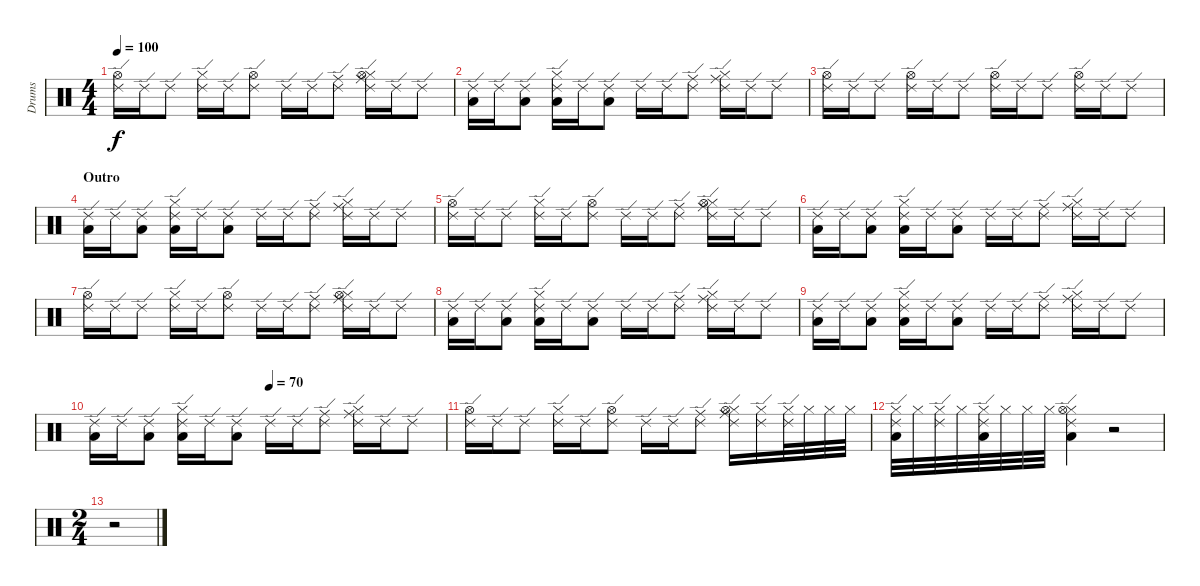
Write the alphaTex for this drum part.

\track ("Drums" "Drums") {instrument percussion}
\staff {score}
\articulation defaults
\ts (4 4)
\tempo 100
\clef neutral
\ks c
("Ride (edge) 2" "Hi-Hat (open)").16{dy f} "Ride (edge) 2".16 "Ride (edge) 2".8 ("Ride (edge) 2" "Hi-Hat (closed)").16 "Ride (edge) 2".16 ("Ride (edge) 2" "Hi-Hat (open)").8 "Ride (edge) 2".16 "Ride (edge) 2".16 ("Ride (edge) 2" "Ride (middle)").8 ("Ride (edge) 2" "Hi-Hat (closed)" "Ride (middle)" "Hi-Hat (open)").16 "Ride (edge) 2".16 "Ride (edge) 2".8 |
("Ride (edge) 2" "Low Tom (hit)").16 "Ride (edge) 2".16 ("Ride (edge) 2" "Low Tom (hit)").8 ("Ride (edge) 2" "Hi-Hat (closed)" "Low Tom (hit)").16 "Ride (edge) 2".16 ("Ride (edge) 2" "Low Tom (hit)").8 "Ride (edge) 2".16 "Ride (edge) 2".16 ("Ride (edge) 2" "Ride (middle)").8 ("Ride (edge) 2" "Hi-Hat (closed)" "Ride (middle)").16 "Ride (edge) 2".16 "Ride (edge) 2".8 |
("Ride (edge) 2" "Hi-Hat (open)").16 "Ride (edge) 2".16 "Ride (edge) 2".8 ("Ride (edge) 2" "Hi-Hat (open)").16 "Ride (edge) 2".16 "Ride (edge) 2".8 ("Ride (edge) 2" "Hi-Hat (open)").16 "Ride (edge) 2".16 "Ride (edge) 2".8 ("Ride (edge) 2" "Hi-Hat (open)").16 "Ride (edge) 2".16 "Ride (edge) 2".8 |
\section ("" "Outro")
("Ride (edge) 2" "Low Tom (hit)").16 "Ride (edge) 2".16 ("Ride (edge) 2" "Low Tom (hit)").8 ("Ride (edge) 2" "Hi-Hat (closed)" "Low Tom (hit)").16 "Ride (edge) 2".16 ("Ride (edge) 2" "Low Tom (hit)").8 "Ride (edge) 2".16 "Ride (edge) 2".16 ("Ride (edge) 2" "Ride (middle)").8 ("Ride (edge) 2" "Hi-Hat (closed)" "Ride (middle)").16 "Ride (edge) 2".16 "Ride (edge) 2".8 |
("Ride (edge) 2" "Hi-Hat (open)").16 "Ride (edge) 2".16 "Ride (edge) 2".8 ("Ride (edge) 2" "Hi-Hat (closed)").16 "Ride (edge) 2".16 ("Ride (edge) 2" "Hi-Hat (open)").8 "Ride (edge) 2".16 "Ride (edge) 2".16 ("Ride (edge) 2" "Ride (middle)").8 ("Ride (edge) 2" "Hi-Hat (closed)" "Ride (middle)" "Hi-Hat (open)").16 "Ride (edge) 2".16 "Ride (edge) 2".8 |
("Ride (edge) 2" "Low Tom (hit)").16 "Ride (edge) 2".16 ("Ride (edge) 2" "Low Tom (hit)").8 ("Ride (edge) 2" "Hi-Hat (closed)" "Low Tom (hit)").16 "Ride (edge) 2".16 ("Ride (edge) 2" "Low Tom (hit)").8 "Ride (edge) 2".16 "Ride (edge) 2".16 ("Ride (edge) 2" "Ride (middle)").8 ("Ride (edge) 2" "Hi-Hat (closed)" "Ride (middle)").16 "Ride (edge) 2".16 "Ride (edge) 2".8 |
("Ride (edge) 2" "Hi-Hat (open)").16 "Ride (edge) 2".16 "Ride (edge) 2".8 ("Ride (edge) 2" "Hi-Hat (closed)").16 "Ride (edge) 2".16 ("Ride (edge) 2" "Hi-Hat (open)").8 "Ride (edge) 2".16 "Ride (edge) 2".16 ("Ride (edge) 2" "Ride (middle)").8 ("Ride (edge) 2" "Hi-Hat (closed)" "Ride (middle)" "Hi-Hat (open)").16 "Ride (edge) 2".16 "Ride (edge) 2".8 |
("Ride (edge) 2" "Low Tom (hit)").16 "Ride (edge) 2".16 ("Ride (edge) 2" "Low Tom (hit)").8 ("Ride (edge) 2" "Hi-Hat (closed)" "Low Tom (hit)").16 "Ride (edge) 2".16 ("Ride (edge) 2" "Low Tom (hit)").8 "Ride (edge) 2".16 "Ride (edge) 2".16 ("Ride (edge) 2" "Ride (middle)").8 ("Ride (edge) 2" "Hi-Hat (closed)" "Ride (middle)").16 "Ride (edge) 2".16 "Ride (edge) 2".8 |
("Ride (edge) 2" "Low Tom (hit)").16 "Ride (edge) 2".16 ("Ride (edge) 2" "Low Tom (hit)").8 ("Ride (edge) 2" "Hi-Hat (closed)" "Low Tom (hit)").16 "Ride (edge) 2".16 ("Ride (edge) 2" "Low Tom (hit)").8 "Ride (edge) 2".16 "Ride (edge) 2".16 ("Ride (edge) 2" "Ride (middle)").8 ("Ride (edge) 2" "Hi-Hat (closed)" "Ride (middle)").16 "Ride (edge) 2".16 "Ride (edge) 2".8 |
\tempo (70 0.5)
("Ride (edge) 2" "Low Tom (hit)").16 "Ride (edge) 2".16 ("Ride (edge) 2" "Low Tom (hit)").8 ("Ride (edge) 2" "Hi-Hat (closed)" "Low Tom (hit)").16 "Ride (edge) 2".16 ("Ride (edge) 2" "Low Tom (hit)").8 "Ride (edge) 2".16 "Ride (edge) 2".16 ("Ride (edge) 2" "Ride (middle)").8 ("Ride (edge) 2" "Hi-Hat (closed)" "Ride (middle)").16 "Ride (edge) 2".16 "Ride (edge) 2".8 |
("Ride (edge) 2" "Hi-Hat (open)").16 "Ride (edge) 2".16 "Ride (edge) 2".8 ("Ride (edge) 2" "Hi-Hat (closed)").16 "Ride (edge) 2".16 ("Ride (edge) 2" "Hi-Hat (open)").8 "Ride (edge) 2".16 "Ride (edge) 2".16 ("Ride (edge) 2" "Ride (middle)").8 ("Ride (edge) 2" "Hi-Hat (closed)" "Ride (middle)" "Hi-Hat (open)").16 ("Ride (edge) 2" "Hi-Hat (closed)").16 ("Ride (edge) 2" "Hi-Hat (closed)").32 "Hi-Hat (closed)".32 "Hi-Hat (closed)".32 "Hi-Hat (closed)".32 |
("Ride (edge) 2" "Hi-Hat (closed)" "Low Tom (hit)").32 "Hi-Hat (closed)".32 ("Ride (edge) 2" "Hi-Hat (closed)").32 "Hi-Hat (closed)".32 ("Ride (edge) 2" "Hi-Hat (closed)" "Low Tom (hit)").32 "Hi-Hat (closed)".32 "Hi-Hat (closed)".32 "Hi-Hat (closed)".32 ("Ride (edge) 2" "Hi-Hat (closed)" "Low Tom (hit)" "Hi-Hat (open)").4 r.2 |
\ts (2 4)
r.2
